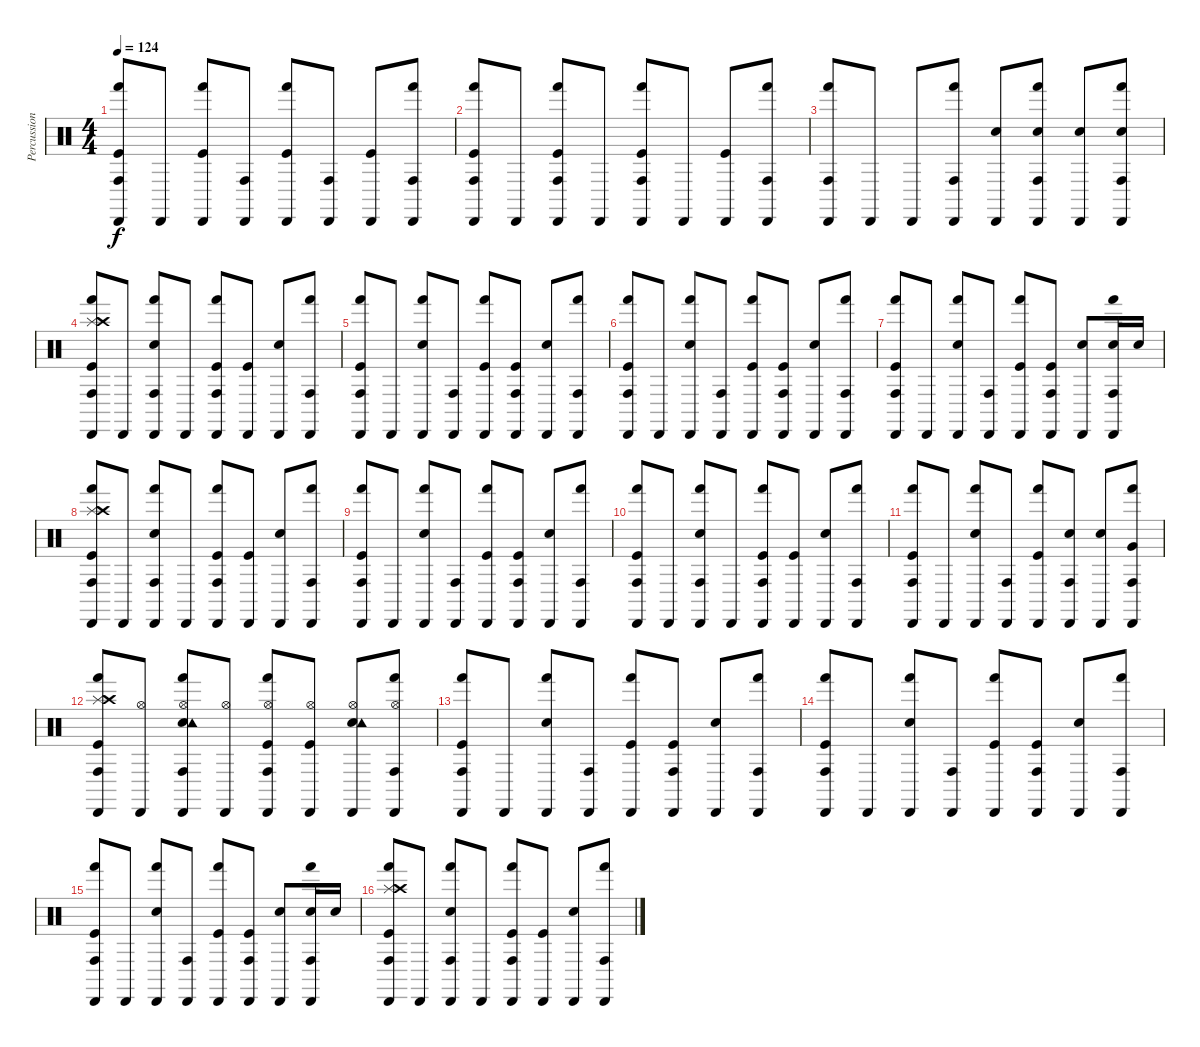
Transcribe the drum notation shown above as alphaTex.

\track ("Percussion" "Percussion") {instrument percussion}
\staff {score}
\articulation defaults
\ts (4 4)
\tempo 124
\clef neutral
\ks c
("Cabasa (hit)" "Kick (hit)" "Hand (hit)" "Conga high (hit)").8{dy f} "Cabasa (hit)".8 ("Cabasa (hit)" "Kick (hit)" "Hand (hit)").8 ("Cabasa (hit)" "Conga high (hit)").8 ("Cabasa (hit)" "Kick (hit)" "Hand (hit)").8 ("Cabasa (hit)" "Conga high (hit)").8 ("Cabasa (hit)" "Kick (hit)").8 ("Cabasa (hit)" "Hand (hit)" "Conga high (hit)").8 |
("Cabasa (hit)" "Kick (hit)" "Hand (hit)" "Conga high (hit)").8 "Cabasa (hit)".8 ("Cabasa (hit)" "Kick (hit)" "Hand (hit)" "Conga high (hit)").8 "Cabasa (hit)".8 ("Cabasa (hit)" "Kick (hit)" "Hand (hit)" "Conga high (hit)").8 "Cabasa (hit)".8 ("Cabasa (hit)" "Kick (hit)").8 ("Cabasa (hit)" "Hand (hit)" "Conga high (hit)").8 |
("Cabasa (hit)" "Hand (hit)" "Conga high (hit)").8 "Cabasa (hit)".8 "Cabasa (hit)".8 ("Cabasa (hit)" "Hand (hit)" "Conga high (hit)").8 ("Cabasa (hit)" "Electric Snare (hit)").8 ("Cabasa (hit)" "Electric Snare (hit)" "Hand (hit)" "Conga high (hit)").8 ("Cabasa (hit)" "Electric Snare (hit)").8 ("Cabasa (hit)" "Electric Snare (hit)" "Hand (hit)" "Conga high (hit)").8 |
("Cabasa (hit)" "Kick (hit)" "Hand (hit)" "Conga high (hit)" "Splash (hit)" "Crash high (hit)").8 "Cabasa (hit)".8 ("Cabasa (hit)" "Electric Snare (hit)" "Hand (hit)" "Conga high (hit)").8 "Cabasa (hit)".8 ("Cabasa (hit)" "Kick (hit)" "Hand (hit)" "Conga high (hit)").8 ("Cabasa (hit)" "Kick (hit)").8 ("Cabasa (hit)" "Electric Snare (hit)").8 ("Cabasa (hit)" "Hand (hit)" "Conga high (hit)").8 |
("Cabasa (hit)" "Kick (hit)" "Hand (hit)" "Conga high (hit)").8 "Cabasa (hit)".8 ("Cabasa (hit)" "Electric Snare (hit)" "Hand (hit)").8 ("Cabasa (hit)" "Conga high (hit)").8 ("Cabasa (hit)" "Kick (hit)" "Hand (hit)").8 ("Cabasa (hit)" "Kick (hit)" "Conga high (hit)").8 ("Cabasa (hit)" "Electric Snare (hit)").8 ("Cabasa (hit)" "Hand (hit)" "Conga high (hit)").8 |
("Cabasa (hit)" "Kick (hit)" "Hand (hit)" "Conga high (hit)").8 "Cabasa (hit)".8 ("Cabasa (hit)" "Electric Snare (hit)" "Hand (hit)").8 ("Cabasa (hit)" "Conga high (hit)").8 ("Cabasa (hit)" "Kick (hit)" "Hand (hit)").8 ("Cabasa (hit)" "Kick (hit)" "Conga high (hit)").8 ("Cabasa (hit)" "Electric Snare (hit)").8 ("Cabasa (hit)" "Hand (hit)" "Conga high (hit)").8 |
("Cabasa (hit)" "Kick (hit)" "Hand (hit)" "Conga high (hit)").8 "Cabasa (hit)".8 ("Cabasa (hit)" "Electric Snare (hit)" "Hand (hit)").8 ("Cabasa (hit)" "Conga high (hit)").8 ("Cabasa (hit)" "Kick (hit)" "Hand (hit)").8 ("Cabasa (hit)" "Kick (hit)" "Conga high (hit)").8 ("Cabasa (hit)" "Electric Snare (hit)").8 ("Cabasa (hit)" "Snare (hit) 2" "Hand (hit)" "Conga high (hit)").16 "Snare (hit) 2".16 |
("Cabasa (hit)" "Kick (hit)" "Hand (hit)" "Conga high (hit)" "Splash (hit)" "Crash high (hit)").8 "Cabasa (hit)".8 ("Cabasa (hit)" "Electric Snare (hit)" "Hand (hit)" "Conga high (hit)").8 "Cabasa (hit)".8 ("Cabasa (hit)" "Kick (hit)" "Hand (hit)" "Conga high (hit)").8 ("Cabasa (hit)" "Kick (hit)").8 ("Cabasa (hit)" "Electric Snare (hit)").8 ("Cabasa (hit)" "Hand (hit)" "Conga high (hit)").8 |
("Cabasa (hit)" "Kick (hit)" "Hand (hit)" "Conga high (hit)").8 "Cabasa (hit)".8 ("Cabasa (hit)" "Electric Snare (hit)" "Hand (hit)").8 ("Cabasa (hit)" "Conga high (hit)").8 ("Cabasa (hit)" "Kick (hit)" "Hand (hit)").8 ("Cabasa (hit)" "Kick (hit)" "Conga high (hit)").8 ("Cabasa (hit)" "Electric Snare (hit)").8 ("Cabasa (hit)" "Hand (hit)" "Conga high (hit)").8 |
("Cabasa (hit)" "Kick (hit)" "Hand (hit)" "Conga high (hit)").8 "Cabasa (hit)".8 ("Cabasa (hit)" "Electric Snare (hit)" "Hand (hit)" "Conga high (hit)").8 "Cabasa (hit)".8 ("Cabasa (hit)" "Kick (hit)" "Hand (hit)" "Conga high (hit)").8 ("Cabasa (hit)" "Kick (hit)").8 ("Cabasa (hit)" "Electric Snare (hit)").8 ("Cabasa (hit)" "Hand (hit)" "Conga high (hit)").8 |
("Cabasa (hit)" "Kick (hit)" "Hand (hit)" "Conga high (hit)").8 "Cabasa (hit)".8 ("Cabasa (hit)" "Electric Snare (hit)" "Hand (hit)").8 ("Cabasa (hit)" "Conga high (hit)").8 ("Cabasa (hit)" "Kick (hit)" "Hand (hit)").8 ("Cabasa (hit)" "Electric Snare (hit)" "Conga high (hit)").8 ("Cabasa (hit)" "Electric Snare (hit)").8 ("Cabasa (hit)" "Very Low Tom (hit)" "Hand (hit)" "Conga high (hit)").8 |
("Cabasa (hit)" "Kick (hit)" "Hand (hit)" "Conga high (hit)" "Splash (hit)" "Crash high (hit)").8 ("Cabasa (hit)" "Hi-Hat (open)").8 ("Cabasa (hit)" "Electric Snare (hit)" "Hand (hit)" "Conga high (hit)" "Tambourine (hit)" "Hi-Hat (open)").8 ("Cabasa (hit)" "Hi-Hat (open)").8 ("Cabasa (hit)" "Kick (hit)" "Hand (hit)" "Conga high (hit)" "Hi-Hat (open)").8 ("Cabasa (hit)" "Kick (hit)" "Hi-Hat (open)").8 ("Cabasa (hit)" "Electric Snare (hit)" "Tambourine (hit)" "Hi-Hat (open)").8 ("Cabasa (hit)" "Hand (hit)" "Conga high (hit)" "Hi-Hat (open)").8 |
("Cabasa (hit)" "Kick (hit)" "Hand (hit)" "Conga high (hit)").8 "Cabasa (hit)".8 ("Cabasa (hit)" "Electric Snare (hit)" "Hand (hit)").8 ("Cabasa (hit)" "Conga high (hit)").8 ("Cabasa (hit)" "Kick (hit)" "Hand (hit)").8 ("Cabasa (hit)" "Kick (hit)" "Conga high (hit)").8 ("Cabasa (hit)" "Electric Snare (hit)").8 ("Cabasa (hit)" "Hand (hit)" "Conga high (hit)").8 |
("Cabasa (hit)" "Kick (hit)" "Hand (hit)" "Conga high (hit)").8 "Cabasa (hit)".8 ("Cabasa (hit)" "Electric Snare (hit)" "Hand (hit)").8 ("Cabasa (hit)" "Conga high (hit)").8 ("Cabasa (hit)" "Kick (hit)" "Hand (hit)").8 ("Cabasa (hit)" "Kick (hit)" "Conga high (hit)").8 ("Cabasa (hit)" "Electric Snare (hit)").8 ("Cabasa (hit)" "Hand (hit)" "Conga high (hit)").8 |
("Cabasa (hit)" "Kick (hit)" "Hand (hit)" "Conga high (hit)").8 "Cabasa (hit)".8 ("Cabasa (hit)" "Electric Snare (hit)" "Hand (hit)").8 ("Cabasa (hit)" "Conga high (hit)").8 ("Cabasa (hit)" "Kick (hit)" "Hand (hit)").8 ("Cabasa (hit)" "Kick (hit)" "Conga high (hit)").8 ("Cabasa (hit)" "Electric Snare (hit)").8 ("Cabasa (hit)" "Snare (hit) 2" "Hand (hit)" "Conga high (hit)").16 "Snare (hit) 2".16 |
("Cabasa (hit)" "Kick (hit)" "Hand (hit)" "Conga high (hit)" "Splash (hit)" "Crash high (hit)").8 "Cabasa (hit)".8 ("Cabasa (hit)" "Electric Snare (hit)" "Hand (hit)" "Conga high (hit)").8 "Cabasa (hit)".8 ("Cabasa (hit)" "Kick (hit)" "Hand (hit)" "Conga high (hit)").8 ("Cabasa (hit)" "Kick (hit)").8 ("Cabasa (hit)" "Electric Snare (hit)").8 ("Cabasa (hit)" "Hand (hit)" "Conga high (hit)").8
